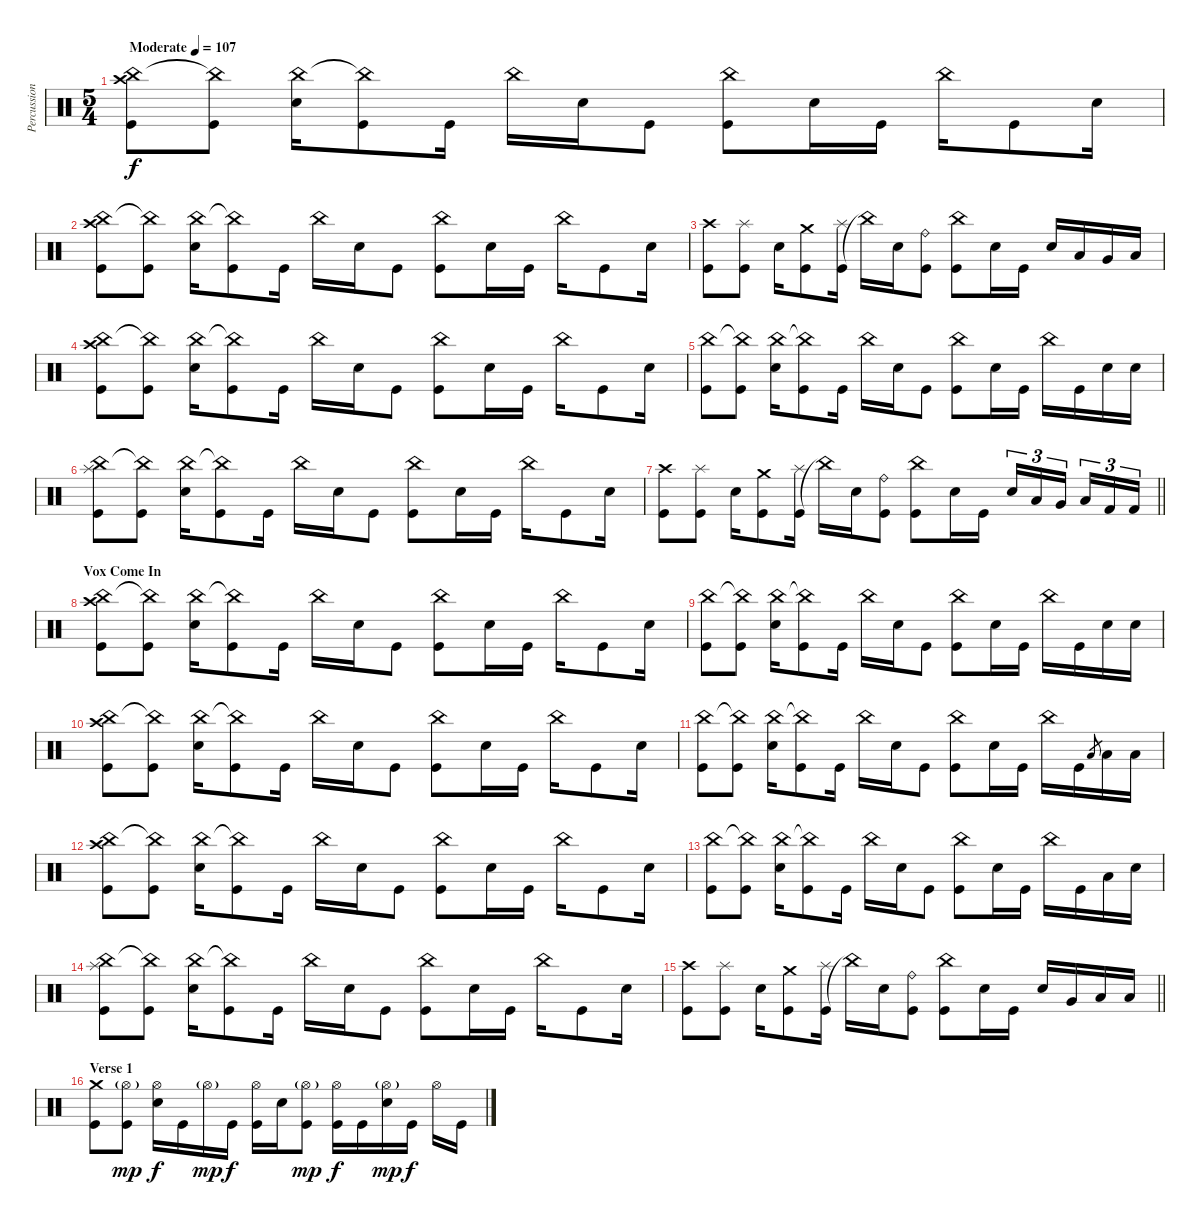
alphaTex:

\track ("Percussion" "Percussion") {instrument percussion}
\staff {score}
\articulation defaults
\ts (5 4)
\tempo (107 "Moderate")
\clef neutral
\ks c
("China (hit)" "Crash high (hit)" "Kick (hit)").8{dy f} ("China (hit)"{t} "Kick (hit)").8 ("China (hit)" "Electric Snare (hit)").16 ("China (hit)"{t} "Kick (hit)").8 "Kick (hit)".16 "China (hit)".16 "Electric Snare (hit)".16 "Kick (hit)".8 ("China (hit)" "Kick (hit)").8 "Electric Snare (hit)".16 "Kick (hit)".16 "China (hit)".16 "Kick (hit)".8 "Electric Snare (hit)".16 |
("China (hit)" "Crash high (hit)" "Kick (hit)").8 ("China (hit)"{t} "Kick (hit)").8 ("China (hit)" "Electric Snare (hit)").16 ("China (hit)"{t} "Kick (hit)").8 "Kick (hit)".16 "China (hit)".16 "Electric Snare (hit)".16 "Kick (hit)".8 ("China (hit)" "Kick (hit)").8 "Electric Snare (hit)".16 "Kick (hit)".16 "China (hit)".16 "Kick (hit)".8 "Electric Snare (hit)".16 |
("Crash high (hit)" "Kick (hit)").8 ("Splash (hit)" "Kick (hit)").8 "Electric Snare (hit)".16 ("Crash medium (hit)" "Kick (hit)").8 ("Kick (hit)" "Splash (hit)").16 "China (hit)"{t}.16 "Electric Snare (hit)".16 ("Kick (hit)" "Ride (bell)").8 ("China (hit)" "Kick (hit)").8 "Electric Snare (hit)".16 "Kick (hit)".16 "Electric Snare (hit)".16 "Low Tom (hit)".16 "Very Low Tom (hit)".16 "Low Floor Tom (hit)".16 |
("China (hit)" "Crash high (hit)" "Kick (hit)").8 ("China (hit)"{t} "Kick (hit)").8 ("China (hit)" "Electric Snare (hit)").16 ("China (hit)"{t} "Kick (hit)").8 "Kick (hit)".16 "China (hit)".16 "Electric Snare (hit)".16 "Kick (hit)".8 ("China (hit)" "Kick (hit)").8 "Electric Snare (hit)".16 "Kick (hit)".16 "China (hit)".16 "Kick (hit)".8 "Electric Snare (hit)".16 |
("China (hit)" "Kick (hit)").8 ("China (hit)"{t} "Kick (hit)").8 ("China (hit)" "Electric Snare (hit)").16 ("China (hit)"{t} "Kick (hit)").8 "Kick (hit)".16 "China (hit)".16 "Electric Snare (hit)".16 "Kick (hit)".8 ("China (hit)" "Kick (hit)").8 "Electric Snare (hit)".16 "Kick (hit)".16 "China (hit)".16 "Kick (hit)".16 "Electric Snare (hit)".16 "Electric Snare (hit)".16 |
("China (hit)" "Splash (hit)" "Kick (hit)").8 ("China (hit)"{t} "Kick (hit)").8 ("China (hit)" "Electric Snare (hit)").16 ("China (hit)"{t} "Kick (hit)").8 "Kick (hit)".16 "China (hit)".16 "Electric Snare (hit)".16 "Kick (hit)".8 ("China (hit)" "Kick (hit)").8 "Electric Snare (hit)".16 "Kick (hit)".16 "China (hit)".16 "Kick (hit)".8 "Electric Snare (hit)".16 |
\barLineRight lightlight
("Crash high (hit)" "Kick (hit)").8 ("Splash (hit)" "Kick (hit)").8 "Electric Snare (hit)".16 ("Crash medium (hit)" "Kick (hit)").8 ("Kick (hit)" "Splash (hit)").16 "China (hit)"{t}.16 "Electric Snare (hit)".16 ("Kick (hit)" "Ride (bell)").8 ("China (hit)" "Kick (hit)").8 "Electric Snare (hit)".16 "Kick (hit)".16 "Electric Snare (hit)".16{tu (3 2)} "Low Tom (hit)".16{tu (3 2)} "Very Low Tom (hit)".16{tu (3 2) beam splitsecondary} "Low Floor Tom (hit)".16{tu (3 2)} "Kick (hit) 2".16{tu (3 2)} "Kick (hit) 2".16{tu (3 2)} |
\section ("" "Vox Come In")
("China (hit)" "Crash high (hit)" "Kick (hit)").8 ("China (hit)"{t} "Kick (hit)").8 ("China (hit)" "Electric Snare (hit)").16 ("China (hit)"{t} "Kick (hit)").8 "Kick (hit)".16 "China (hit)".16 "Electric Snare (hit)".16 "Kick (hit)".8 ("China (hit)" "Kick (hit)").8 "Electric Snare (hit)".16 "Kick (hit)".16 "China (hit)".16 "Kick (hit)".8 "Electric Snare (hit)".16 |
("China (hit)" "Kick (hit)").8 ("China (hit)"{t} "Kick (hit)").8 ("China (hit)" "Electric Snare (hit)").16 ("China (hit)"{t} "Kick (hit)").8 "Kick (hit)".16 "China (hit)".16 "Electric Snare (hit)".16 "Kick (hit)".8 ("China (hit)" "Kick (hit)").8 "Electric Snare (hit)".16 "Kick (hit)".16 "China (hit)".16 "Kick (hit)".16 "Electric Snare (hit)".16 "Electric Snare (hit)".16 |
("China (hit)" "Crash high (hit)" "Kick (hit)").8 ("China (hit)"{t} "Kick (hit)").8 ("China (hit)" "Electric Snare (hit)").16 ("China (hit)"{t} "Kick (hit)").8 "Kick (hit)".16 "China (hit)".16 "Electric Snare (hit)".16 "Kick (hit)".8 ("China (hit)" "Kick (hit)").8 "Electric Snare (hit)".16 "Kick (hit)".16 "China (hit)".16 "Kick (hit)".8 "Electric Snare (hit)".16 |
("China (hit)" "Kick (hit)").8 ("China (hit)"{t} "Kick (hit)").8 ("China (hit)" "Electric Snare (hit)").16 ("China (hit)"{t} "Kick (hit)").8 "Kick (hit)".16 "China (hit)".16 "Electric Snare (hit)".16 "Kick (hit)".8 ("China (hit)" "Kick (hit)").8 "Electric Snare (hit)".16 "Kick (hit)".16 "China (hit)".16 "Kick (hit)".16 "Low Floor Tom (hit)".8{gr} "Low Floor Tom (hit)".16 "Low Floor Tom (hit)".16 |
("China (hit)" "Crash high (hit)" "Kick (hit)").8 ("China (hit)"{t} "Kick (hit)").8 ("China (hit)" "Electric Snare (hit)").16 ("China (hit)"{t} "Kick (hit)").8 "Kick (hit)".16 "China (hit)".16 "Electric Snare (hit)".16 "Kick (hit)".8 ("China (hit)" "Kick (hit)").8 "Electric Snare (hit)".16 "Kick (hit)".16 "China (hit)".16 "Kick (hit)".8 "Electric Snare (hit)".16 |
("China (hit)" "Kick (hit)").8 ("China (hit)"{t} "Kick (hit)").8 ("China (hit)" "Electric Snare (hit)").16 ("China (hit)"{t} "Kick (hit)").8 "Kick (hit)".16 "China (hit)".16 "Electric Snare (hit)".16 "Kick (hit)".8 ("China (hit)" "Kick (hit)").8 "Electric Snare (hit)".16 "Kick (hit)".16 "China (hit)".16 "Kick (hit)".16 "Low Floor Tom (hit)".16 "Electric Snare (hit)".16 |
("China (hit)" "Splash (hit)" "Kick (hit)").8 ("China (hit)"{t} "Kick (hit)").8 ("China (hit)" "Electric Snare (hit)").16 ("China (hit)"{t} "Kick (hit)").8 "Kick (hit)".16 "China (hit)".16 "Electric Snare (hit)".16 "Kick (hit)".8 ("China (hit)" "Kick (hit)").8 "Electric Snare (hit)".16 "Kick (hit)".16 "China (hit)".16 "Kick (hit)".8 "Electric Snare (hit)".16 |
\barLineRight lightlight
("Crash high (hit)" "Kick (hit)").8 ("Splash (hit)" "Kick (hit)").8 "Electric Snare (hit)".16 ("Crash medium (hit)" "Kick (hit)").8 ("Kick (hit)" "Splash (hit)").16 "China (hit)"{t}.16 "Electric Snare (hit)".16 ("Kick (hit)" "Ride (bell)").8 ("China (hit)" "Kick (hit)").8 "Electric Snare (hit)".16 "Kick (hit)".16 "Electric Snare (hit)".16 "Very Low Tom (hit)".16 "Low Floor Tom (hit)".16 "Low Floor Tom (hit)".16 |
\section ("" "Verse 1")
("Crash medium (hit)" "Kick (hit)").8 ("Hi-Hat (open)"{g} "Kick (hit)").8{dy mp} ("Hi-Hat (open)" "Electric Snare (hit)").16{dy f} "Kick (hit)".16 "Hi-Hat (open)"{g}.16{dy mp} "Kick (hit)".16{dy f} ("Hi-Hat (open)" "Kick (hit)").16 "Electric Snare (hit)".16 ("Hi-Hat (open)"{g} "Kick (hit)").8{dy mp} ("Hi-Hat (open)" "Kick (hit)").16{dy f} "Kick (hit)".16 ("Hi-Hat (open)"{g} "Electric Snare (hit)").16{dy mp} "Kick (hit)".16{dy f} "Hi-Hat (open)".16 "Kick (hit)".16
